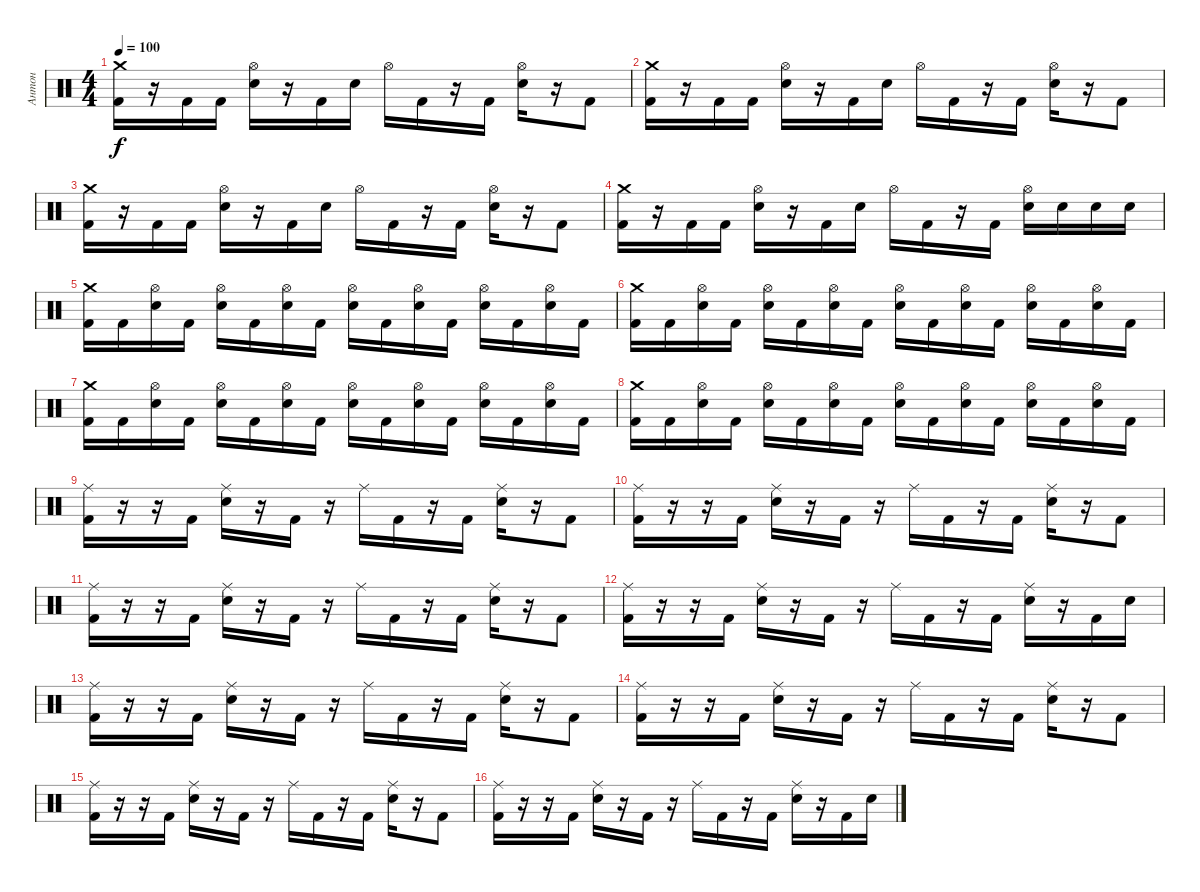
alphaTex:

\track ("Антон" "Антон") {instrument percussion}
\staff {score}
\articulation defaults
\ts (4 4)
\tempo 100
\clef neutral
\ks c
("Crash medium (hit)" "Kick (hit) 2").16{dy f} r.16 "Kick (hit) 2".16 "Kick (hit) 2".16 ("Hi-Hat (open)" "Electric Snare (hit)").16 r.16 "Kick (hit) 2".16 "Electric Snare (hit)".16 "Hi-Hat (open)".16 "Kick (hit) 2".16 r.16 "Kick (hit) 2".16 ("Hi-Hat (open)" "Electric Snare (hit)").16 r.16 "Kick (hit) 2".8 |
("Crash medium (hit)" "Kick (hit) 2").16 r.16 "Kick (hit) 2".16 "Kick (hit) 2".16 ("Hi-Hat (open)" "Electric Snare (hit)").16 r.16 "Kick (hit) 2".16 "Electric Snare (hit)".16 "Hi-Hat (open)".16 "Kick (hit) 2".16 r.16 "Kick (hit) 2".16 ("Hi-Hat (open)" "Electric Snare (hit)").16 r.16 "Kick (hit) 2".8 |
("Crash medium (hit)" "Kick (hit) 2").16 r.16 "Kick (hit) 2".16 "Kick (hit) 2".16 ("Hi-Hat (open)" "Electric Snare (hit)").16 r.16 "Kick (hit) 2".16 "Electric Snare (hit)".16 "Hi-Hat (open)".16 "Kick (hit) 2".16 r.16 "Kick (hit) 2".16 ("Hi-Hat (open)" "Electric Snare (hit)").16 r.16 "Kick (hit) 2".8 |
("Crash medium (hit)" "Kick (hit) 2").16 r.16 "Kick (hit) 2".16 "Kick (hit) 2".16 ("Hi-Hat (open)" "Electric Snare (hit)").16 r.16 "Kick (hit) 2".16 "Electric Snare (hit)".16 "Hi-Hat (open)".16 "Kick (hit) 2".16 r.16 "Kick (hit) 2".16 ("Hi-Hat (open)" "Electric Snare (hit)").16 "Electric Snare (hit)".16 "Electric Snare (hit)".16 "Electric Snare (hit)".16 |
("Crash medium (hit)" "Kick (hit) 2").16 "Kick (hit) 2".16 ("Hi-Hat (open)" "Electric Snare (hit)").16 "Kick (hit) 2".16 ("Hi-Hat (open)" "Electric Snare (hit)").16 "Kick (hit) 2".16 ("Hi-Hat (open)" "Electric Snare (hit)").16 "Kick (hit) 2".16 ("Hi-Hat (open)" "Electric Snare (hit)").16 "Kick (hit) 2".16 ("Hi-Hat (open)" "Electric Snare (hit)").16 "Kick (hit) 2".16 ("Hi-Hat (open)" "Electric Snare (hit)").16 "Kick (hit) 2".16 ("Hi-Hat (open)" "Electric Snare (hit)").16 "Kick (hit) 2".16 |
("Crash medium (hit)" "Kick (hit) 2").16 "Kick (hit) 2".16 ("Hi-Hat (open)" "Electric Snare (hit)").16 "Kick (hit) 2".16 ("Hi-Hat (open)" "Electric Snare (hit)").16 "Kick (hit) 2".16 ("Hi-Hat (open)" "Electric Snare (hit)").16 "Kick (hit) 2".16 ("Hi-Hat (open)" "Electric Snare (hit)").16 "Kick (hit) 2".16 ("Hi-Hat (open)" "Electric Snare (hit)").16 "Kick (hit) 2".16 ("Hi-Hat (open)" "Electric Snare (hit)").16 "Kick (hit) 2".16 ("Hi-Hat (open)" "Electric Snare (hit)").16 "Kick (hit) 2".16 |
("Crash medium (hit)" "Kick (hit) 2").16 "Kick (hit) 2".16 ("Hi-Hat (open)" "Electric Snare (hit)").16 "Kick (hit) 2".16 ("Hi-Hat (open)" "Electric Snare (hit)").16 "Kick (hit) 2".16 ("Hi-Hat (open)" "Electric Snare (hit)").16 "Kick (hit) 2".16 ("Hi-Hat (open)" "Electric Snare (hit)").16 "Kick (hit) 2".16 ("Hi-Hat (open)" "Electric Snare (hit)").16 "Kick (hit) 2".16 ("Hi-Hat (open)" "Electric Snare (hit)").16 "Kick (hit) 2".16 ("Hi-Hat (open)" "Electric Snare (hit)").16 "Kick (hit) 2".16 |
("Crash medium (hit)" "Kick (hit) 2").16 "Kick (hit) 2".16 ("Hi-Hat (open)" "Electric Snare (hit)").16 "Kick (hit) 2".16 ("Hi-Hat (open)" "Electric Snare (hit)").16 "Kick (hit) 2".16 ("Hi-Hat (open)" "Electric Snare (hit)").16 "Kick (hit) 2".16 ("Hi-Hat (open)" "Electric Snare (hit)").16 "Kick (hit) 2".16 ("Hi-Hat (open)" "Electric Snare (hit)").16 "Kick (hit) 2".16 ("Hi-Hat (open)" "Electric Snare (hit)").16 "Kick (hit) 2".16 ("Hi-Hat (open)" "Electric Snare (hit)").16 "Kick (hit) 2".16 |
("Ride (middle)" "Kick (hit) 2").16 r.16 r.16 "Kick (hit) 2".16 ("Ride (middle)" "Electric Snare (hit)").16 r.16 "Kick (hit) 2".16 r.16 "Ride (middle)".16 "Kick (hit) 2".16 r.16 "Kick (hit) 2".16 ("Ride (middle)" "Electric Snare (hit)").16 r.16 "Kick (hit) 2".8 |
("Ride (middle)" "Kick (hit) 2").16 r.16 r.16 "Kick (hit) 2".16 ("Ride (middle)" "Electric Snare (hit)").16 r.16 "Kick (hit) 2".16 r.16 "Ride (middle)".16 "Kick (hit) 2".16 r.16 "Kick (hit) 2".16 ("Ride (middle)" "Electric Snare (hit)").16 r.16 "Kick (hit) 2".8 |
("Ride (middle)" "Kick (hit) 2").16 r.16 r.16 "Kick (hit) 2".16 ("Ride (middle)" "Electric Snare (hit)").16 r.16 "Kick (hit) 2".16 r.16 "Ride (middle)".16 "Kick (hit) 2".16 r.16 "Kick (hit) 2".16 ("Ride (middle)" "Electric Snare (hit)").16 r.16 "Kick (hit) 2".8 |
("Ride (middle)" "Kick (hit) 2").16 r.16 r.16 "Kick (hit) 2".16 ("Ride (middle)" "Electric Snare (hit)").16 r.16 "Kick (hit) 2".16 r.16 "Ride (middle)".16 "Kick (hit) 2".16 r.16 "Kick (hit) 2".16 ("Ride (middle)" "Electric Snare (hit)").16 r.16 "Kick (hit) 2".16 "Electric Snare (hit)".16 |
("Ride (middle)" "Kick (hit) 2").16 r.16 r.16 "Kick (hit) 2".16 ("Ride (middle)" "Electric Snare (hit)").16 r.16 "Kick (hit) 2".16 r.16 "Ride (middle)".16 "Kick (hit) 2".16 r.16 "Kick (hit) 2".16 ("Ride (middle)" "Electric Snare (hit)").16 r.16 "Kick (hit) 2".8 |
("Ride (middle)" "Kick (hit) 2").16 r.16 r.16 "Kick (hit) 2".16 ("Ride (middle)" "Electric Snare (hit)").16 r.16 "Kick (hit) 2".16 r.16 "Ride (middle)".16 "Kick (hit) 2".16 r.16 "Kick (hit) 2".16 ("Ride (middle)" "Electric Snare (hit)").16 r.16 "Kick (hit) 2".8 |
("Ride (middle)" "Kick (hit) 2").16 r.16 r.16 "Kick (hit) 2".16 ("Ride (middle)" "Electric Snare (hit)").16 r.16 "Kick (hit) 2".16 r.16 "Ride (middle)".16 "Kick (hit) 2".16 r.16 "Kick (hit) 2".16 ("Ride (middle)" "Electric Snare (hit)").16 r.16 "Kick (hit) 2".8 |
("Ride (middle)" "Kick (hit) 2").16 r.16 r.16 "Kick (hit) 2".16 ("Ride (middle)" "Electric Snare (hit)").16 r.16 "Kick (hit) 2".16 r.16 "Ride (middle)".16 "Kick (hit) 2".16 r.16 "Kick (hit) 2".16 ("Ride (middle)" "Electric Snare (hit)").16 r.16 "Kick (hit) 2".16 "Electric Snare (hit)".16
